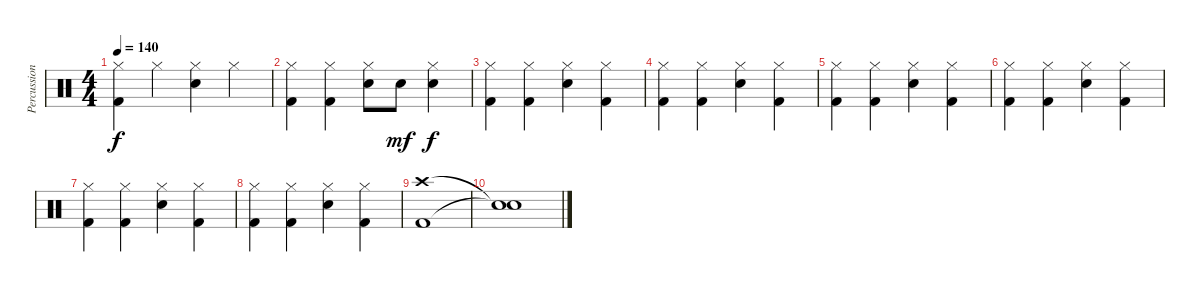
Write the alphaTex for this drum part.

\track ("Percussion" "Percussion") {instrument percussion}
\staff {score}
\articulation defaults
\ts (4 4)
\tempo 140
\clef neutral
\ks c
("Hi-Hat (closed)" "Kick (hit) 2").4{dy f} "Hi-Hat (closed)".4 ("Hi-Hat (closed)" "Electric Snare (hit)").4 "Hi-Hat (closed)".4 |
("Hi-Hat (closed)" "Kick (hit) 2").4 ("Hi-Hat (closed)" "Kick (hit) 2").4 ("Hi-Hat (closed)" "Electric Snare (hit)").8 "Electric Snare (hit)".8{dy mf} ("Hi-Hat (closed)" "Electric Snare (hit)").4{dy f} |
("Hi-Hat (closed)" "Kick (hit) 2").4 ("Hi-Hat (closed)" "Kick (hit) 2").4 ("Hi-Hat (closed)" "Electric Snare (hit)").4 ("Hi-Hat (closed)" "Kick (hit) 2").4 |
("Hi-Hat (closed)" "Kick (hit) 2").4 ("Hi-Hat (closed)" "Kick (hit) 2").4 ("Hi-Hat (closed)" "Electric Snare (hit)").4 ("Hi-Hat (closed)" "Kick (hit) 2").4 |
("Hi-Hat (closed)" "Kick (hit) 2").4 ("Hi-Hat (closed)" "Kick (hit) 2").4 ("Hi-Hat (closed)" "Electric Snare (hit)").4 ("Hi-Hat (closed)" "Kick (hit) 2").4 |
("Hi-Hat (closed)" "Kick (hit) 2").4 ("Hi-Hat (closed)" "Kick (hit) 2").4 ("Hi-Hat (closed)" "Electric Snare (hit)").4 ("Hi-Hat (closed)" "Kick (hit) 2").4 |
("Hi-Hat (closed)" "Kick (hit) 2").4 ("Hi-Hat (closed)" "Kick (hit) 2").4 ("Hi-Hat (closed)" "Electric Snare (hit)").4 ("Hi-Hat (closed)" "Kick (hit) 2").4 |
("Hi-Hat (closed)" "Kick (hit) 2").4 ("Hi-Hat (closed)" "Kick (hit) 2").4 ("Hi-Hat (closed)" "Electric Snare (hit)").4 ("Hi-Hat (closed)" "Kick (hit) 2").4 |
("Crash high (hit)" "Kick (hit) 2").1 |
("Snare (hit)"{t} "Snare (hit)"{t}).1
